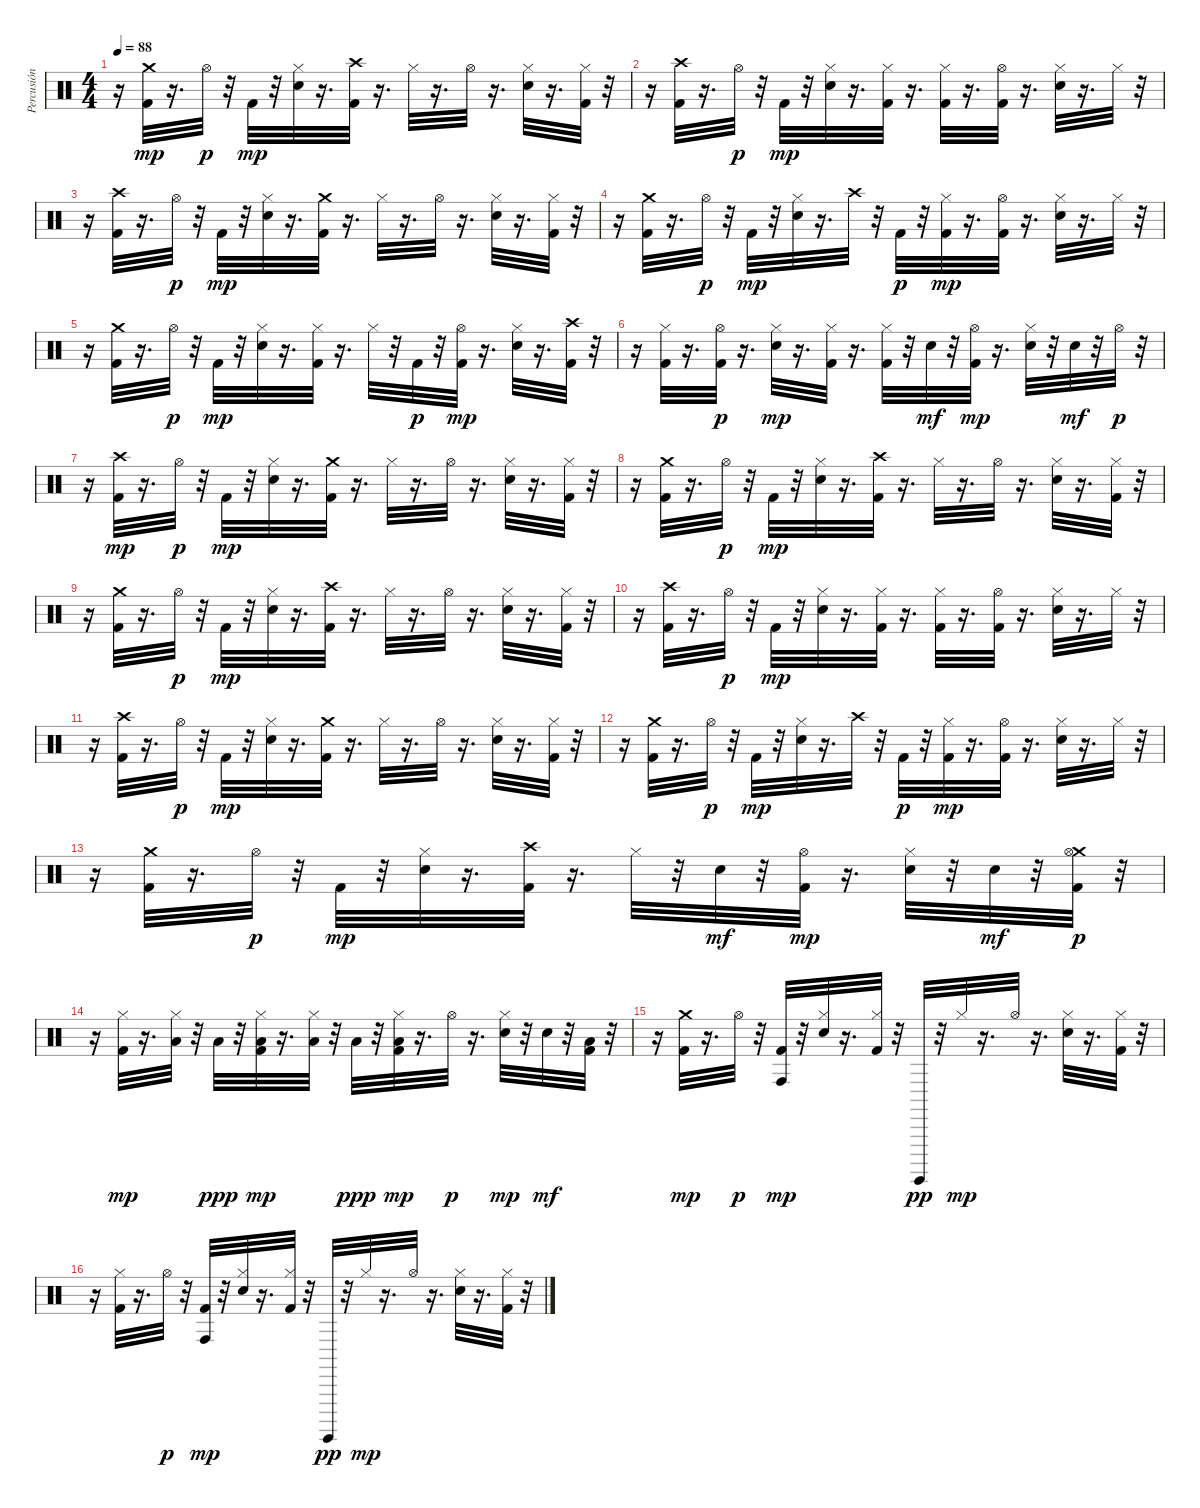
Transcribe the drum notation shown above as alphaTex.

\track ("Percusión" "Percusión") {instrument percussion}
\staff {score}
\articulation defaults
\ts (4 4)
\tempo 88
\clef neutral
\ks c
r.16{dy mp} ("Kick (hit) 2" "Crash medium (hit)").32 r.16{d} "Hi-Hat (open)".32{dy p} r.32 "Kick (hit) 2".32{dy mp} r.32 ("Electric Snare (hit)" "Hi-Hat (closed)").32 r.16{d} ("Kick (hit) 2" "Crash high (hit)").32 r.16{d} "Hi-Hat (closed)".32 r.16{d} "Hi-Hat (open)".32 r.16{d} ("Electric Snare (hit)" "Hi-Hat (closed)").32 r.16{d} ("Kick (hit) 2" "Hi-Hat (closed)").32 r.32 |
r.16 ("Kick (hit) 2" "Crash high (hit)").32 r.16{d} "Hi-Hat (open)".32{dy p} r.32 "Kick (hit) 2".32{dy mp} r.32 ("Electric Snare (hit)" "Hi-Hat (closed)").32 r.16{d} ("Kick (hit) 2" "Hi-Hat (closed)").32 r.16{d} ("Kick (hit) 2" "Hi-Hat (closed)").32 r.16{d} ("Kick (hit) 2" "Hi-Hat (open)").32 r.16{d} ("Electric Snare (hit)" "Hi-Hat (closed)").32 r.16{d} "Hi-Hat (closed)".32 r.32 |
r.16 ("Kick (hit) 2" "Crash high (hit)").32 r.16{d} "Hi-Hat (open)".32{dy p} r.32 "Kick (hit) 2".32{dy mp} r.32 ("Electric Snare (hit)" "Hi-Hat (closed)").32 r.16{d} ("Kick (hit) 2" "Crash medium (hit)").32 r.16{d} "Hi-Hat (closed)".32 r.16{d} "Hi-Hat (open)".32 r.16{d} ("Electric Snare (hit)" "Hi-Hat (closed)").32 r.16{d} ("Kick (hit) 2" "Hi-Hat (closed)").32 r.32 |
r.16 ("Kick (hit) 2" "Crash medium (hit)").32 r.16{d} "Hi-Hat (open)".32{dy p} r.32 "Kick (hit) 2".32{dy mp} r.32 ("Electric Snare (hit)" "Hi-Hat (closed)").32 r.16{d} "Crash high (hit)".32 r.32 "Kick (hit) 2".32{dy p} r.32 ("Kick (hit) 2" "Hi-Hat (closed)").32{dy mp} r.16{d} ("Kick (hit) 2" "Hi-Hat (open)").32 r.16{d} ("Electric Snare (hit)" "Hi-Hat (closed)").32 r.16{d} "Hi-Hat (closed)".32 r.32 |
r.16 ("Kick (hit) 2" "Crash medium (hit)").32 r.16{d} "Hi-Hat (open)".32{dy p} r.32 "Kick (hit) 2".32{dy mp} r.32 ("Electric Snare (hit)" "Hi-Hat (closed)").32 r.16{d} ("Kick (hit) 2" "Hi-Hat (closed)").32 r.16{d} "Hi-Hat (closed)".32 r.32 "Kick (hit) 2".32{dy p} r.32 ("Kick (hit) 2" "Hi-Hat (open)").32{dy mp} r.16{d} ("Electric Snare (hit)" "Hi-Hat (closed)").32 r.16{d} ("Kick (hit) 2" "Crash high (hit)").32 r.32 |
r.16 ("Kick (hit) 2" "Hi-Hat (closed)").32 r.16{d} ("Kick (hit) 2" "Hi-Hat (open)").32{dy p} r.16{d} ("Electric Snare (hit)" "Hi-Hat (closed)").32{dy mp} r.16{d} ("Kick (hit) 2" "Hi-Hat (closed)").32 r.16{d} ("Kick (hit) 2" "Hi-Hat (closed)").32 r.32 "Electric Snare (hit)".32{dy mf} r.32 ("Kick (hit) 2" "Hi-Hat (open)").32{dy mp} r.16{d} ("Electric Snare (hit)" "Hi-Hat (closed)").32 r.32 "Electric Snare (hit)".32{dy mf} r.32 "Hi-Hat (open)".32{dy p} r.32 |
r.16 ("Kick (hit) 2" "Crash high (hit)").32{dy mp} r.16{d} "Hi-Hat (open)".32{dy p} r.32 "Kick (hit) 2".32{dy mp} r.32 ("Electric Snare (hit)" "Hi-Hat (closed)").32 r.16{d} ("Kick (hit) 2" "Crash medium (hit)").32 r.16{d} "Hi-Hat (closed)".32 r.16{d} "Hi-Hat (open)".32 r.16{d} ("Electric Snare (hit)" "Hi-Hat (closed)").32 r.16{d} ("Kick (hit) 2" "Hi-Hat (closed)").32 r.32 |
r.16 ("Kick (hit) 2" "Crash medium (hit)").32 r.16{d} "Hi-Hat (open)".32{dy p} r.32 "Kick (hit) 2".32{dy mp} r.32 ("Electric Snare (hit)" "Hi-Hat (closed)").32 r.16{d} ("Kick (hit) 2" "Crash high (hit)").32 r.16{d} "Hi-Hat (closed)".32 r.16{d} "Hi-Hat (open)".32 r.16{d} ("Electric Snare (hit)" "Hi-Hat (closed)").32 r.16{d} ("Kick (hit) 2" "Hi-Hat (closed)").32 r.32 |
r.16 ("Kick (hit) 2" "Crash medium (hit)").32 r.16{d} "Hi-Hat (open)".32{dy p} r.32 "Kick (hit) 2".32{dy mp} r.32 ("Electric Snare (hit)" "Hi-Hat (closed)").32 r.16{d} ("Kick (hit) 2" "Crash high (hit)").32 r.16{d} "Hi-Hat (closed)".32 r.16{d} "Hi-Hat (open)".32 r.16{d} ("Electric Snare (hit)" "Hi-Hat (closed)").32 r.16{d} ("Kick (hit) 2" "Hi-Hat (closed)").32 r.32 |
r.16 ("Kick (hit) 2" "Crash high (hit)").32 r.16{d} "Hi-Hat (open)".32{dy p} r.32 "Kick (hit) 2".32{dy mp} r.32 ("Electric Snare (hit)" "Hi-Hat (closed)").32 r.16{d} ("Kick (hit) 2" "Hi-Hat (closed)").32 r.16{d} ("Kick (hit) 2" "Hi-Hat (closed)").32 r.16{d} ("Kick (hit) 2" "Hi-Hat (open)").32 r.16{d} ("Electric Snare (hit)" "Hi-Hat (closed)").32 r.16{d} "Hi-Hat (closed)".32 r.32 |
r.16 ("Kick (hit) 2" "Crash high (hit)").32 r.16{d} "Hi-Hat (open)".32{dy p} r.32 "Kick (hit) 2".32{dy mp} r.32 ("Electric Snare (hit)" "Hi-Hat (closed)").32 r.16{d} ("Kick (hit) 2" "Crash medium (hit)").32 r.16{d} "Hi-Hat (closed)".32 r.16{d} "Hi-Hat (open)".32 r.16{d} ("Electric Snare (hit)" "Hi-Hat (closed)").32 r.16{d} ("Kick (hit) 2" "Hi-Hat (closed)").32 r.32 |
r.16 ("Kick (hit) 2" "Crash medium (hit)").32 r.16{d} "Hi-Hat (open)".32{dy p} r.32 "Kick (hit) 2".32{dy mp} r.32 ("Electric Snare (hit)" "Hi-Hat (closed)").32 r.16{d} "Crash high (hit)".32 r.32 "Kick (hit) 2".32{dy p} r.32 ("Kick (hit) 2" "Hi-Hat (closed)").32{dy mp} r.16{d} ("Kick (hit) 2" "Hi-Hat (open)").32 r.16{d} ("Electric Snare (hit)" "Hi-Hat (closed)").32 r.16{d} "Hi-Hat (closed)".32 r.32 |
r.16 ("Kick (hit) 2" "Crash medium (hit)").32 r.16{d} "Hi-Hat (open)".32{dy p} r.32 "Kick (hit) 2".32{dy mp} r.32 ("Electric Snare (hit)" "Hi-Hat (closed)").32 r.16{d} ("Kick (hit) 2" "Crash high (hit)").32 r.16{d} "Hi-Hat (closed)".32 r.32 "Electric Snare (hit)".32{dy mf} r.32 ("Kick (hit) 2" "Hi-Hat (open)").32{dy mp} r.16{d} ("Electric Snare (hit)" "Hi-Hat (closed)").32 r.32 "Electric Snare (hit)".32{dy mf} r.32 ("Kick (hit) 2" "Crash medium (hit)" "Hi-Hat (open)").32{dy p} r.32 |
r.16 ("Kick (hit) 2" "Hi-Hat (closed)").32{dy mp} r.16{d} ("Low Tom (hit)" "Hi-Hat (closed)").32 r.32 "Low Tom (hit)".32{dy ppp} r.32 ("Low Tom (hit)" "Kick (hit) 2" "Hi-Hat (closed)").32{dy mp} r.16{d} ("Low Tom (hit)" "Hi-Hat (closed)").32 r.32 "Low Tom (hit)".32{dy ppp} r.32 ("Low Tom (hit)" "Kick (hit) 2" "Hi-Hat (closed)").32{dy mp} r.16{d} "Hi-Hat (open)".32{dy p} r.16{d} ("Electric Snare (hit)" "Hi-Hat (closed)").32{dy mp} r.32 "Electric Snare (hit)".32{dy mf} r.32 ("Low Tom (hit)" "Kick (hit) 2").32 r.32 |
r.16 ("Kick (hit) 2" "Crash medium (hit)").32{dy mp} r.16{d} "Hi-Hat (open)".32{dy p} r.32 ("Kick (hit) 2" "Conga high (hit)").32{dy mp} r.32 ("Electric Snare (hit)" "Hi-Hat (closed)").32 r.16{d} ("Kick (hit) 2" "Hi-Hat (closed)").32 r.32 "Surdo (hit)".32{dy pp} r.32 "Hi-Hat (closed)".32{dy mp} r.16{d} "Hi-Hat (open)".32 r.16{d} ("Electric Snare (hit)" "Hi-Hat (closed)").32 r.16{d} ("Kick (hit) 2" "Hi-Hat (closed)").32 r.32 |
r.16 ("Kick (hit) 2" "Hi-Hat (closed)").32 r.16{d} "Hi-Hat (open)".32{dy p} r.32 ("Kick (hit) 2" "Conga high (hit)").32{dy mp} r.32 ("Electric Snare (hit)" "Hi-Hat (closed)").32 r.16{d} ("Kick (hit) 2" "Hi-Hat (closed)").32 r.32 "Surdo (hit)".32{dy pp} r.32 "Hi-Hat (closed)".32{dy mp} r.16{d} "Hi-Hat (open)".32 r.16{d} ("Electric Snare (hit)" "Hi-Hat (closed)").32 r.16{d} ("Kick (hit) 2" "Hi-Hat (closed)").32 r.32
